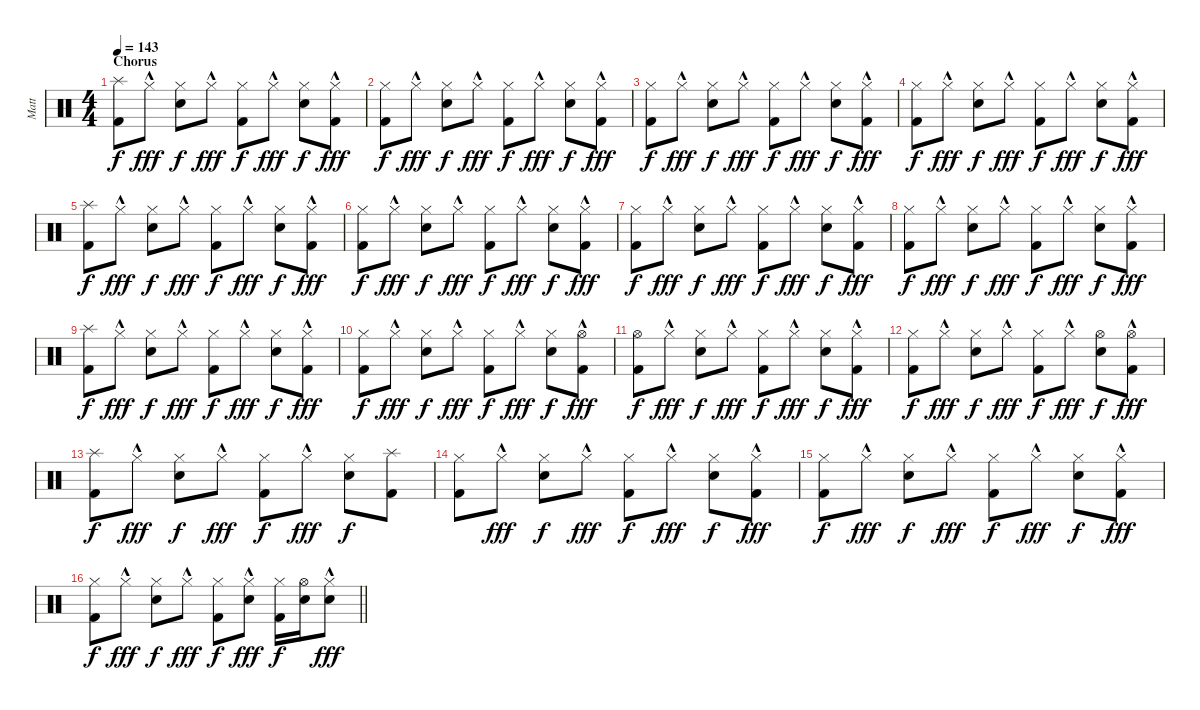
\track ("Matt" "Matt") {instrument percussion}
\staff {score}
\articulation defaults
\ts (4 4)
\section ("" "Chorus")
\tempo 143
\clef neutral
\ks c
("Splash (hit)" "Kick (hit) 2").8{dy f} "Hi-Hat (closed)"{hac}.8{dy fff} ("Hi-Hat (closed)" "Snare (hit) 2").8{dy f} "Hi-Hat (closed)"{hac}.8{dy fff} ("Hi-Hat (closed)" "Kick (hit) 2").8{dy f} "Hi-Hat (closed)"{hac}.8{dy fff} ("Hi-Hat (closed)" "Snare (hit) 2").8{dy f} ("Hi-Hat (closed)"{hac} "Kick (hit) 2").8{dy fff} |
("Hi-Hat (closed)" "Kick (hit) 2").8{dy f} "Hi-Hat (closed)"{hac}.8{dy fff} ("Hi-Hat (closed)" "Snare (hit) 2").8{dy f} "Hi-Hat (closed)"{hac}.8{dy fff} ("Hi-Hat (closed)" "Kick (hit) 2").8{dy f} "Hi-Hat (closed)"{hac}.8{dy fff} ("Hi-Hat (closed)" "Snare (hit) 2").8{dy f} ("Hi-Hat (closed)"{hac} "Kick (hit) 2").8{dy fff} |
("Hi-Hat (closed)" "Kick (hit) 2").8{dy f} "Hi-Hat (closed)"{hac}.8{dy fff} ("Hi-Hat (closed)" "Snare (hit) 2").8{dy f} "Hi-Hat (closed)"{hac}.8{dy fff} ("Hi-Hat (closed)" "Kick (hit) 2").8{dy f} "Hi-Hat (closed)"{hac}.8{dy fff} ("Hi-Hat (closed)" "Snare (hit) 2").8{dy f} ("Hi-Hat (closed)"{hac} "Kick (hit) 2").8{dy fff} |
("Hi-Hat (closed)" "Kick (hit) 2").8{dy f} "Hi-Hat (closed)"{hac}.8{dy fff} ("Hi-Hat (closed)" "Snare (hit) 2").8{dy f} "Hi-Hat (closed)"{hac}.8{dy fff} ("Hi-Hat (closed)" "Kick (hit) 2").8{dy f} "Hi-Hat (closed)"{hac}.8{dy fff} ("Hi-Hat (closed)" "Snare (hit) 2").8{dy f} ("Hi-Hat (closed)"{hac} "Kick (hit) 2").8{dy fff} |
("Splash (hit)" "Kick (hit) 2").8{dy f} "Hi-Hat (closed)"{hac}.8{dy fff} ("Hi-Hat (closed)" "Snare (hit) 2").8{dy f} "Hi-Hat (closed)"{hac}.8{dy fff} ("Hi-Hat (closed)" "Kick (hit) 2").8{dy f} "Hi-Hat (closed)"{hac}.8{dy fff} ("Hi-Hat (closed)" "Snare (hit) 2").8{dy f} ("Hi-Hat (closed)"{hac} "Kick (hit) 2").8{dy fff} |
("Hi-Hat (closed)" "Kick (hit) 2").8{dy f} "Hi-Hat (closed)"{hac}.8{dy fff} ("Hi-Hat (closed)" "Snare (hit) 2").8{dy f} "Hi-Hat (closed)"{hac}.8{dy fff} ("Hi-Hat (closed)" "Kick (hit) 2").8{dy f} "Hi-Hat (closed)"{hac}.8{dy fff} ("Hi-Hat (closed)" "Snare (hit) 2").8{dy f} ("Hi-Hat (closed)"{hac} "Kick (hit) 2").8{dy fff} |
("Hi-Hat (closed)" "Kick (hit) 2").8{dy f} "Hi-Hat (closed)"{hac}.8{dy fff} ("Hi-Hat (closed)" "Snare (hit) 2").8{dy f} "Hi-Hat (closed)"{hac}.8{dy fff} ("Hi-Hat (closed)" "Kick (hit) 2").8{dy f} "Hi-Hat (closed)"{hac}.8{dy fff} ("Hi-Hat (closed)" "Snare (hit) 2").8{dy f} ("Hi-Hat (closed)"{hac} "Kick (hit) 2").8{dy fff} |
("Hi-Hat (closed)" "Kick (hit) 2").8{dy f} "Hi-Hat (closed)"{hac}.8{dy fff} ("Hi-Hat (closed)" "Snare (hit) 2").8{dy f} "Hi-Hat (closed)"{hac}.8{dy fff} ("Hi-Hat (closed)" "Kick (hit) 2").8{dy f} "Hi-Hat (closed)"{hac}.8{dy fff} ("Hi-Hat (closed)" "Snare (hit) 2").8{dy f} ("Hi-Hat (closed)"{hac} "Kick (hit) 2").8{dy fff} |
("Splash (hit)" "Kick (hit) 2").8{dy f} "Hi-Hat (closed)"{hac}.8{dy fff} ("Hi-Hat (closed)" "Snare (hit) 2").8{dy f} "Hi-Hat (closed)"{hac}.8{dy fff} ("Hi-Hat (closed)" "Kick (hit) 2").8{dy f} "Hi-Hat (closed)"{hac}.8{dy fff} ("Hi-Hat (closed)" "Snare (hit) 2").8{dy f} ("Hi-Hat (closed)"{hac} "Kick (hit) 2").8{dy fff} |
("Hi-Hat (closed)" "Kick (hit) 2").8{dy f} "Hi-Hat (closed)"{hac}.8{dy fff} ("Hi-Hat (closed)" "Snare (hit) 2").8{dy f} "Hi-Hat (closed)"{hac}.8{dy fff} ("Hi-Hat (closed)" "Kick (hit) 2").8{dy f} "Hi-Hat (closed)"{hac}.8{dy fff} ("Hi-Hat (closed)" "Snare (hit) 2").8{dy f} ("Hi-Hat (open)"{hac} "Kick (hit) 2").8{dy fff} |
("Hi-Hat (open)" "Kick (hit) 2").8{dy f} "Hi-Hat (closed)"{hac}.8{dy fff} ("Hi-Hat (closed)" "Snare (hit) 2").8{dy f} "Hi-Hat (closed)"{hac}.8{dy fff} ("Hi-Hat (closed)" "Kick (hit) 2").8{dy f} "Hi-Hat (closed)"{hac}.8{dy fff} ("Hi-Hat (closed)" "Snare (hit) 2").8{dy f} ("Hi-Hat (closed)"{hac} "Kick (hit) 2").8{dy fff} |
("Hi-Hat (closed)" "Kick (hit) 2").8{dy f} "Hi-Hat (closed)"{hac}.8{dy fff} ("Hi-Hat (closed)" "Snare (hit) 2").8{dy f} "Hi-Hat (closed)"{hac}.8{dy fff} ("Hi-Hat (closed)" "Kick (hit) 2").8{dy f} "Hi-Hat (closed)"{hac}.8{dy fff} ("Hi-Hat (open)" "Snare (hit) 2").8{dy f} ("Hi-Hat (open)"{hac} "Kick (hit) 2").8{dy fff} |
("Splash (hit)" "Kick (hit) 2").8{dy f} "Hi-Hat (closed)"{hac}.8{dy fff} ("Hi-Hat (closed)" "Snare (hit) 2").8{dy f} "Hi-Hat (closed)"{hac}.8{dy fff} ("Hi-Hat (closed)" "Kick (hit) 2").8{dy f} "Hi-Hat (closed)"{hac}.8{dy fff} ("Hi-Hat (closed)" "Snare (hit) 2").8{dy f} ("Splash (hit)" "Kick (hit) 2").8 |
("Hi-Hat (closed)" "Kick (hit) 2").8 "Hi-Hat (closed)"{hac}.8{dy fff} ("Hi-Hat (closed)" "Snare (hit) 2").8{dy f} "Hi-Hat (closed)"{hac}.8{dy fff} ("Hi-Hat (closed)" "Kick (hit) 2").8{dy f} "Hi-Hat (closed)"{hac}.8{dy fff} ("Hi-Hat (closed)" "Snare (hit) 2").8{dy f} ("Hi-Hat (closed)"{hac} "Kick (hit) 2").8{dy fff} |
("Hi-Hat (closed)" "Kick (hit) 2").8{dy f} "Hi-Hat (closed)"{hac}.8{dy fff} ("Hi-Hat (closed)" "Snare (hit) 2").8{dy f} "Hi-Hat (closed)"{hac}.8{dy fff} ("Hi-Hat (closed)" "Kick (hit) 2").8{dy f} "Hi-Hat (closed)"{hac}.8{dy fff} ("Hi-Hat (closed)" "Snare (hit) 2").8{dy f} ("Hi-Hat (closed)"{hac} "Kick (hit) 2").8{dy fff} |
\barLineRight lightlight
("Hi-Hat (closed)" "Kick (hit) 2").8{dy f} "Hi-Hat (closed)"{hac}.8{dy fff} ("Hi-Hat (closed)" "Snare (hit) 2").8{dy f} "Hi-Hat (closed)"{hac}.8{dy fff} ("Hi-Hat (closed)" "Kick (hit) 2").8{dy f} ("Hi-Hat (closed)"{hac} "Snare (hit) 2").8{dy fff} ("Hi-Hat (closed)" "Kick (hit) 2").16{dy f} ("Hi-Hat (open)" "Snare (hit) 2").16 ("Hi-Hat (closed)"{hac} "Snare (hit) 2").8{dy fff}
